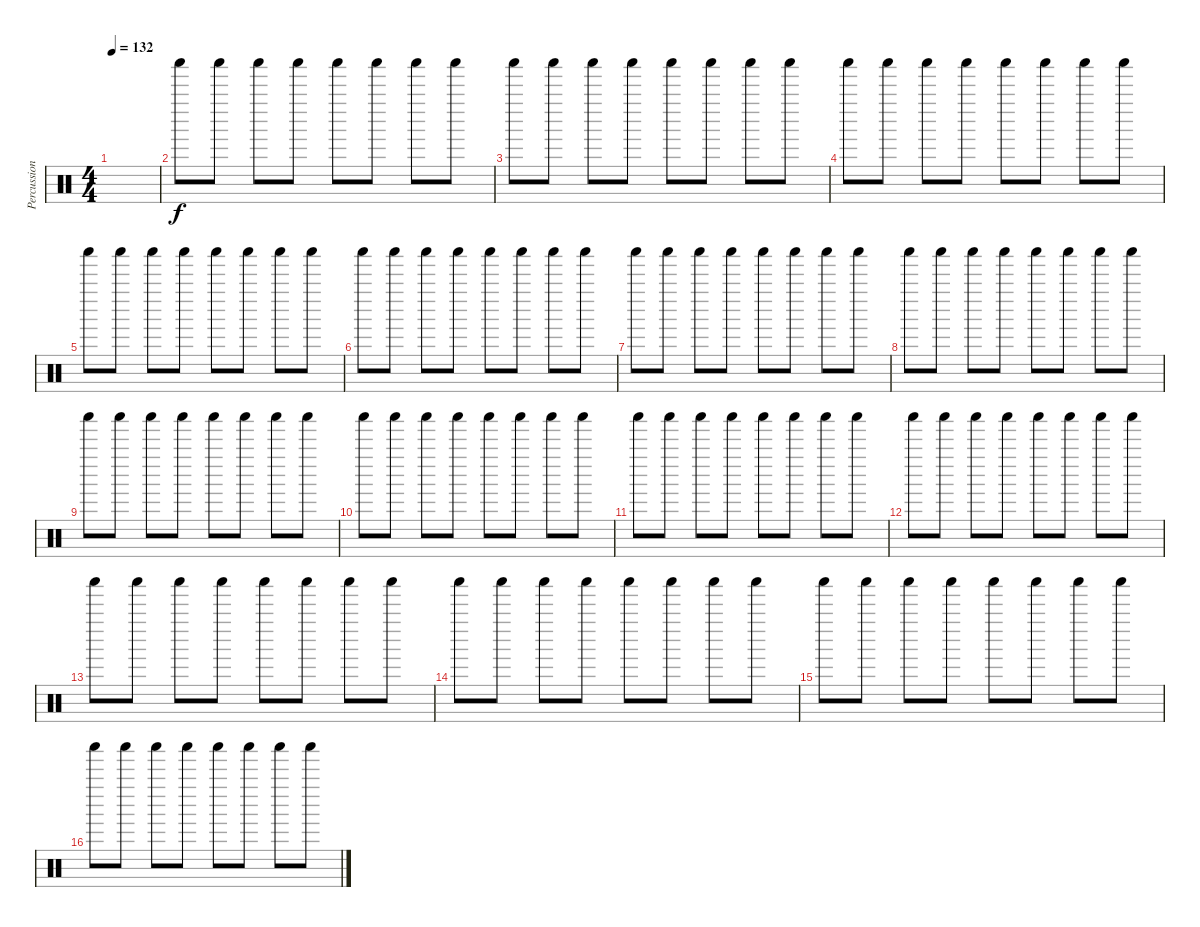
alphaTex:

\track ("Percussion" "Percussion") {instrument percussion}
\staff {score}
\articulation defaults
\ts (4 4)
\tempo 132
\clef neutral
\ks c
|
"Shaker (hit)".8 "Shaker (hit)".8 "Shaker (hit)".8 "Shaker (hit)".8 "Shaker (hit)".8 "Shaker (hit)".8 "Shaker (hit)".8 "Shaker (hit)".8 |
"Shaker (hit)".8 "Shaker (hit)".8 "Shaker (hit)".8 "Shaker (hit)".8 "Shaker (hit)".8 "Shaker (hit)".8 "Shaker (hit)".8 "Shaker (hit)".8 |
"Shaker (hit)".8 "Shaker (hit)".8 "Shaker (hit)".8 "Shaker (hit)".8 "Shaker (hit)".8 "Shaker (hit)".8 "Shaker (hit)".8 "Shaker (hit)".8 |
"Shaker (hit)".8 "Shaker (hit)".8 "Shaker (hit)".8 "Shaker (hit)".8 "Shaker (hit)".8 "Shaker (hit)".8 "Shaker (hit)".8 "Shaker (hit)".8 |
"Shaker (hit)".8 "Shaker (hit)".8 "Shaker (hit)".8 "Shaker (hit)".8 "Shaker (hit)".8 "Shaker (hit)".8 "Shaker (hit)".8 "Shaker (hit)".8 |
"Shaker (hit)".8 "Shaker (hit)".8 "Shaker (hit)".8 "Shaker (hit)".8 "Shaker (hit)".8 "Shaker (hit)".8 "Shaker (hit)".8 "Shaker (hit)".8 |
"Shaker (hit)".8 "Shaker (hit)".8 "Shaker (hit)".8 "Shaker (hit)".8 "Shaker (hit)".8 "Shaker (hit)".8 "Shaker (hit)".8 "Shaker (hit)".8 |
"Shaker (hit)".8 "Shaker (hit)".8 "Shaker (hit)".8 "Shaker (hit)".8 "Shaker (hit)".8 "Shaker (hit)".8 "Shaker (hit)".8 "Shaker (hit)".8 |
"Shaker (hit)".8 "Shaker (hit)".8 "Shaker (hit)".8 "Shaker (hit)".8 "Shaker (hit)".8 "Shaker (hit)".8 "Shaker (hit)".8 "Shaker (hit)".8 |
"Shaker (hit)".8 "Shaker (hit)".8 "Shaker (hit)".8 "Shaker (hit)".8 "Shaker (hit)".8 "Shaker (hit)".8 "Shaker (hit)".8 "Shaker (hit)".8 |
"Shaker (hit)".8 "Shaker (hit)".8 "Shaker (hit)".8 "Shaker (hit)".8 "Shaker (hit)".8 "Shaker (hit)".8 "Shaker (hit)".8 "Shaker (hit)".8 |
"Shaker (hit)".8 "Shaker (hit)".8 "Shaker (hit)".8 "Shaker (hit)".8 "Shaker (hit)".8 "Shaker (hit)".8 "Shaker (hit)".8 "Shaker (hit)".8 |
"Shaker (hit)".8 "Shaker (hit)".8 "Shaker (hit)".8 "Shaker (hit)".8 "Shaker (hit)".8 "Shaker (hit)".8 "Shaker (hit)".8 "Shaker (hit)".8 |
"Shaker (hit)".8 "Shaker (hit)".8 "Shaker (hit)".8 "Shaker (hit)".8 "Shaker (hit)".8 "Shaker (hit)".8 "Shaker (hit)".8 "Shaker (hit)".8 |
"Shaker (hit)".8 "Shaker (hit)".8 "Shaker (hit)".8 "Shaker (hit)".8 "Shaker (hit)".8 "Shaker (hit)".8 "Shaker (hit)".8 "Shaker (hit)".8
